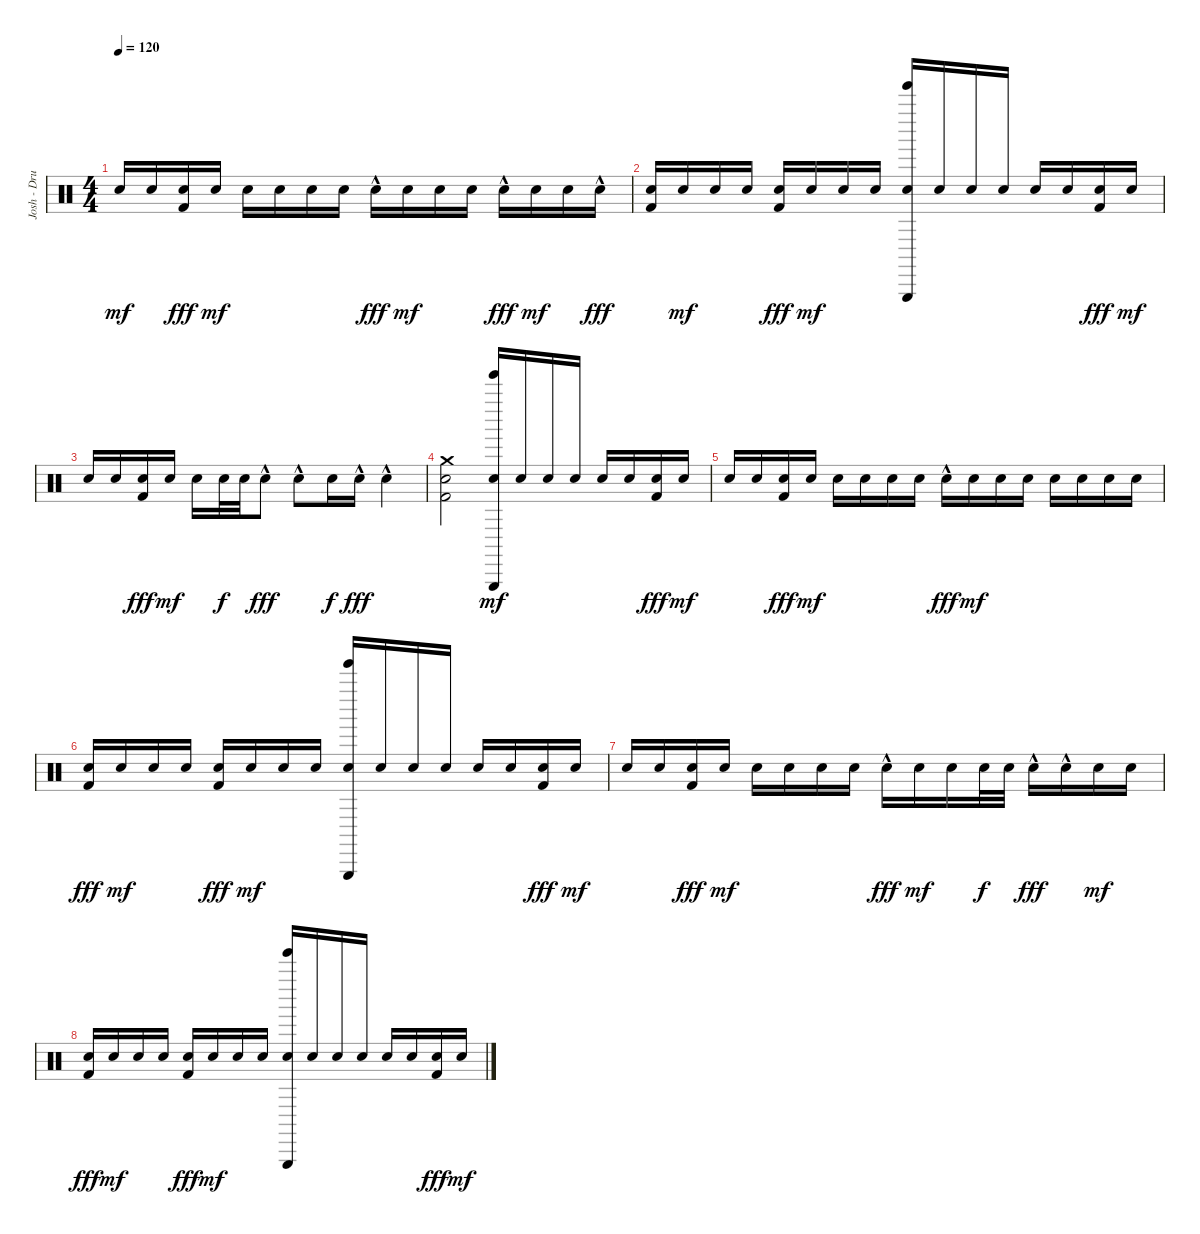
\track ("Josh - Drums" "Josh - Dru") {instrument percussion}
\staff {score}
\articulation defaults
\ts (4 4)
\tempo 120
\clef neutral
\ks c "Electric Snare (hit)".16{dy mf} "Electric Snare (hit)".16
("Electric Snare (hit)" "Kick (hit) 2").16{dy fff} "Electric Snare (hit)".16{dy mf} "Electric Snare (hit)".16 "Electric Snare (hit)".16 "Electric Snare (hit)".16 "Electric Snare (hit)".16 "Snare (hit) 2"{hac}.16{dy fff} "Electric Snare (hit)".16{dy mf} "Electric Snare (hit)".16 "Electric Snare (hit)".16 "Snare (hit) 2"{hac}.16{dy fff} "Electric Snare (hit)".16{dy mf} "Electric Snare (hit)".16 "Snare (hit) 2"{hac}.16{dy fff} |
("Electric Snare (hit)" "Kick (hit) 2").16 "Electric Snare (hit)".16{dy mf} "Electric Snare (hit)".16 "Electric Snare (hit)".16 ("Electric Snare (hit)" "Kick (hit) 2").16{dy fff} "Electric Snare (hit)".16{dy mf} "Electric Snare (hit)".16 "Electric Snare (hit)".16 ("Electric Snare (hit)" "Tinkle Bell (hit)" "Triangle (hit)").16 "Electric Snare (hit)".16 "Electric Snare (hit)".16 "Electric Snare (hit)".16 "Electric Snare (hit)".16 "Electric Snare (hit)".16 ("Electric Snare (hit)" "Kick (hit) 2").16{dy fff} "Electric Snare (hit)".16{dy mf} |
"Electric Snare (hit)".16 "Electric Snare (hit)".16 ("Electric Snare (hit)" "Kick (hit) 2").16{dy fff} "Electric Snare (hit)".16{dy mf} "Electric Snare (hit)".16 "Snare (hit) 2".32{dy f} "Snare (hit) 2".32 "Snare (hit) 2"{hac}.8{dy fff} "Snare (hit) 2"{hac}.8 "Snare (hit) 2".16{dy f} "Snare (hit) 2"{hac}.16{dy fff} "Snare (hit) 2"{hac}.4 |
("Crash medium (hit)" "Electric Snare (hit)" "Kick (hit) 2").2 ("Electric Snare (hit)" "Tinkle Bell (hit)" "Triangle (hit)").16{dy mf} "Electric Snare (hit)".16 "Electric Snare (hit)".16 "Electric Snare (hit)".16 "Electric Snare (hit)".16 "Electric Snare (hit)".16 ("Electric Snare (hit)" "Kick (hit) 2").16{dy fff} "Electric Snare (hit)".16{dy mf} |
"Electric Snare (hit)".16 "Electric Snare (hit)".16 ("Electric Snare (hit)" "Kick (hit) 2").16{dy fff} "Electric Snare (hit)".16{dy mf} "Electric Snare (hit)".16 "Electric Snare (hit)".16 "Electric Snare (hit)".16 "Electric Snare (hit)".16 "Snare (hit) 2"{hac}.16{dy fff} "Electric Snare (hit)".16{dy mf} "Electric Snare (hit)".16 "Electric Snare (hit)".16 "Electric Snare (hit)".16 "Electric Snare (hit)".16 "Electric Snare (hit)".16 "Electric Snare (hit)".16 |
("Electric Snare (hit)" "Kick (hit) 2").16{dy fff} "Electric Snare (hit)".16{dy mf} "Electric Snare (hit)".16 "Electric Snare (hit)".16 ("Electric Snare (hit)" "Kick (hit) 2").16{dy fff} "Electric Snare (hit)".16{dy mf} "Electric Snare (hit)".16 "Electric Snare (hit)".16 ("Electric Snare (hit)" "Tinkle Bell (hit)" "Triangle (hit)").16 "Electric Snare (hit)".16 "Electric Snare (hit)".16 "Electric Snare (hit)".16 "Electric Snare (hit)".16 "Electric Snare (hit)".16 ("Electric Snare (hit)" "Kick (hit) 2").16{dy fff} "Electric Snare (hit)".16{dy mf} |
"Electric Snare (hit)".16 "Electric Snare (hit)".16 ("Electric Snare (hit)" "Kick (hit) 2").16{dy fff} "Electric Snare (hit)".16{dy mf} "Electric Snare (hit)".16 "Electric Snare (hit)".16 "Electric Snare (hit)".16 "Electric Snare (hit)".16 "Snare (hit) 2"{hac}.16{dy fff} "Electric Snare (hit)".16{dy mf} "Electric Snare (hit)".16 "Snare (hit) 2".32{dy f} "Snare (hit) 2".32 "Snare (hit) 2"{hac}.16{dy fff} "Snare (hit) 2"{hac}.16 "Electric Snare (hit)".16{dy mf} "Electric Snare (hit)".16 |
("Electric Snare (hit)" "Kick (hit) 2").16{dy fff} "Electric Snare (hit)".16{dy mf} "Electric Snare (hit)".16 "Electric Snare (hit)".16 ("Electric Snare (hit)" "Kick (hit) 2").16{dy fff} "Electric Snare (hit)".16{dy mf} "Electric Snare (hit)".16 "Electric Snare (hit)".16 ("Electric Snare (hit)" "Tinkle Bell (hit)" "Triangle (hit)").16 "Electric Snare (hit)".16 "Electric Snare (hit)".16 "Electric Snare (hit)".16 "Electric Snare (hit)".16 "Electric Snare (hit)".16 ("Electric Snare (hit)" "Kick (hit) 2").16{dy fff} "Electric Snare (hit)".16{dy mf}
